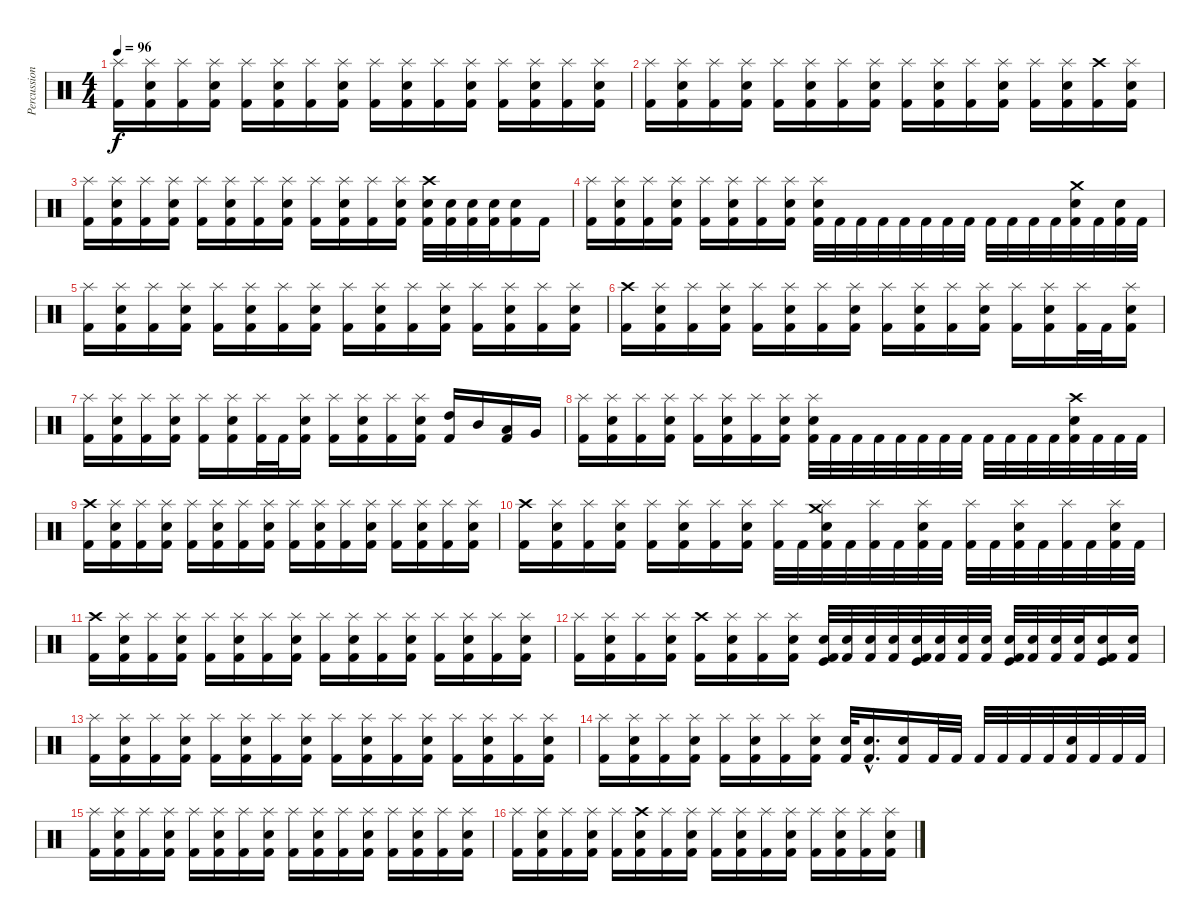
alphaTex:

\track ("Percussion" "Percussion") {instrument percussion}
\staff {score}
\articulation defaults
\ts (4 4)
\tempo 96
\clef neutral
\ks c
("Splash (hit)" "Kick (hit) 2").16{dy f} ("Splash (hit)" "Snare (hit) 2" "Kick (hit) 2").16 ("Splash (hit)" "Kick (hit) 2").16 ("Splash (hit)" "Snare (hit) 2" "Kick (hit) 2").16 ("Splash (hit)" "Kick (hit) 2").16 ("Splash (hit)" "Snare (hit) 2" "Kick (hit) 2").16 ("Splash (hit)" "Kick (hit) 2").16 ("Splash (hit)" "Snare (hit) 2" "Kick (hit) 2").16 ("Splash (hit)" "Kick (hit) 2").16 ("Splash (hit)" "Snare (hit) 2" "Kick (hit) 2").16 ("Splash (hit)" "Kick (hit) 2").16 ("Splash (hit)" "Snare (hit) 2" "Kick (hit) 2").16 ("Splash (hit)" "Kick (hit) 2").16 ("Splash (hit)" "Snare (hit) 2" "Kick (hit) 2").16 ("Splash (hit)" "Kick (hit) 2").16 ("Splash (hit)" "Snare (hit) 2" "Kick (hit) 2").16 |
("Splash (hit)" "Kick (hit) 2").16 ("Splash (hit)" "Snare (hit) 2" "Kick (hit) 2").16 ("Splash (hit)" "Kick (hit) 2").16 ("Splash (hit)" "Snare (hit) 2" "Kick (hit) 2").16 ("Splash (hit)" "Kick (hit) 2").16 ("Splash (hit)" "Snare (hit) 2" "Kick (hit) 2").16 ("Splash (hit)" "Kick (hit) 2").16 ("Splash (hit)" "Snare (hit) 2" "Kick (hit) 2").16 ("Splash (hit)" "Kick (hit) 2").16 ("Splash (hit)" "Snare (hit) 2" "Kick (hit) 2").16 ("Splash (hit)" "Kick (hit) 2").16 ("Splash (hit)" "Snare (hit) 2" "Kick (hit) 2").16 ("Splash (hit)" "Kick (hit) 2").16 ("Splash (hit)" "Snare (hit) 2" "Kick (hit) 2").16 ("Crash high (hit)" "Kick (hit) 2").16 ("Splash (hit)" "Snare (hit) 2" "Kick (hit) 2").16 |
("Splash (hit)" "Kick (hit) 2").16 ("Splash (hit)" "Snare (hit) 2" "Kick (hit) 2").16 ("Splash (hit)" "Kick (hit) 2").16 ("Splash (hit)" "Snare (hit) 2" "Kick (hit) 2").16 ("Splash (hit)" "Kick (hit) 2").16 ("Splash (hit)" "Snare (hit) 2" "Kick (hit) 2").16 ("Splash (hit)" "Kick (hit) 2").16 ("Splash (hit)" "Snare (hit) 2" "Kick (hit) 2").16 ("Splash (hit)" "Kick (hit) 2").16 ("Splash (hit)" "Snare (hit) 2" "Kick (hit) 2").16 ("Splash (hit)" "Kick (hit) 2").16 ("Splash (hit)" "Snare (hit) 2" "Kick (hit) 2").16 ("Crash high (hit)" "Snare (hit) 2" "Kick (hit) 2").32 ("Snare (hit) 2" "Kick (hit) 2").32 ("Snare (hit) 2" "Kick (hit) 2").32 ("Snare (hit) 2" "Kick (hit) 2").32 ("Snare (hit) 2" "Kick (hit) 2").16 "Kick (hit) 2".16 |
("Splash (hit)" "Kick (hit) 2").16 ("Splash (hit)" "Snare (hit) 2" "Kick (hit) 2").16 ("Splash (hit)" "Kick (hit) 2").16 ("Splash (hit)" "Snare (hit) 2" "Kick (hit) 2").16 ("Splash (hit)" "Kick (hit) 2").16 ("Splash (hit)" "Snare (hit) 2" "Kick (hit) 2").16 ("Splash (hit)" "Kick (hit) 2").16 ("Splash (hit)" "Snare (hit) 2" "Kick (hit) 2").16 ("Splash (hit)" "Snare (hit) 2" "Kick (hit) 2").32 "Kick (hit) 2".32 "Kick (hit) 2".32 "Kick (hit) 2".32 "Kick (hit) 2".32 "Kick (hit) 2".32 "Kick (hit) 2".32 "Kick (hit) 2".32 "Kick (hit) 2".32 "Kick (hit) 2".32 "Kick (hit) 2".32 "Kick (hit) 2".32 ("Crash medium (hit)" "Snare (hit) 2" "Kick (hit) 2").32 "Kick (hit) 2".32 ("Snare (hit) 2" "Kick (hit) 2").32 "Kick (hit) 2".32 |
("Splash (hit)" "Kick (hit) 2").16 ("Splash (hit)" "Snare (hit) 2" "Kick (hit) 2").16 ("Splash (hit)" "Kick (hit) 2").16 ("Splash (hit)" "Snare (hit) 2" "Kick (hit) 2").16 ("Splash (hit)" "Kick (hit) 2").16 ("Splash (hit)" "Snare (hit) 2" "Kick (hit) 2").16 ("Splash (hit)" "Kick (hit) 2").16 ("Splash (hit)" "Snare (hit) 2" "Kick (hit) 2").16 ("Splash (hit)" "Kick (hit) 2").16 ("Splash (hit)" "Snare (hit) 2" "Kick (hit) 2").16 ("Splash (hit)" "Kick (hit) 2").16 ("Splash (hit)" "Snare (hit) 2" "Kick (hit) 2").16 ("Splash (hit)" "Kick (hit) 2").16 ("Splash (hit)" "Snare (hit) 2" "Kick (hit) 2").16 ("Splash (hit)" "Kick (hit) 2").16 ("Splash (hit)" "Snare (hit) 2" "Kick (hit) 2").16 |
("Crash high (hit)" "Kick (hit) 2").16 ("Splash (hit)" "Snare (hit) 2" "Kick (hit) 2").16 ("Splash (hit)" "Kick (hit) 2").16 ("Splash (hit)" "Snare (hit) 2" "Kick (hit) 2").16 ("Splash (hit)" "Kick (hit) 2").16 ("Splash (hit)" "Snare (hit) 2" "Kick (hit) 2").16 ("Splash (hit)" "Kick (hit) 2").16 ("Splash (hit)" "Snare (hit) 2" "Kick (hit) 2").16 ("Splash (hit)" "Kick (hit) 2").16 ("Splash (hit)" "Snare (hit) 2" "Kick (hit) 2").16 ("Splash (hit)" "Kick (hit) 2").16 ("Splash (hit)" "Snare (hit) 2" "Kick (hit) 2").16 ("Splash (hit)" "Kick (hit) 2").16 ("Splash (hit)" "Snare (hit) 2" "Kick (hit) 2").16 ("Splash (hit)" "Kick (hit) 2").32 "Kick (hit) 2".32 ("Splash (hit)" "Snare (hit) 2" "Kick (hit) 2").16 |
("Splash (hit)" "Kick (hit) 2").16 ("Splash (hit)" "Snare (hit) 2" "Kick (hit) 2").16 ("Splash (hit)" "Kick (hit) 2").16 ("Splash (hit)" "Snare (hit) 2" "Kick (hit) 2").16 ("Splash (hit)" "Kick (hit) 2").16 ("Splash (hit)" "Snare (hit) 2" "Kick (hit) 2").16 ("Splash (hit)" "Kick (hit) 2").32 "Kick (hit) 2".32 ("Splash (hit)" "Snare (hit) 2" "Kick (hit) 2").16 ("Splash (hit)" "Kick (hit) 2").16 ("Splash (hit)" "Snare (hit) 2" "Kick (hit) 2").16 ("Splash (hit)" "Kick (hit) 2").16 ("Splash (hit)" "Snare (hit) 2" "Kick (hit) 2").16 ("High Tom (hit)" "Kick (hit) 2").16 "Mid Tom (hit)".16 ("Low Tom (hit)" "Kick (hit) 2").16 "Very Low Tom (hit)".16 |
("Splash (hit)" "Kick (hit) 2").16 ("Splash (hit)" "Snare (hit) 2" "Kick (hit) 2").16 ("Splash (hit)" "Kick (hit) 2").16 ("Splash (hit)" "Snare (hit) 2" "Kick (hit) 2").16 ("Splash (hit)" "Kick (hit) 2").16 ("Splash (hit)" "Snare (hit) 2" "Kick (hit) 2").16 ("Splash (hit)" "Kick (hit) 2").16 ("Splash (hit)" "Snare (hit) 2" "Kick (hit) 2").16 ("Splash (hit)" "Snare (hit) 2" "Kick (hit) 2").32 "Kick (hit) 2".32 "Kick (hit) 2".32 "Kick (hit) 2".32 "Kick (hit) 2".32 "Kick (hit) 2".32 "Kick (hit) 2".32 "Kick (hit) 2".32 "Kick (hit) 2".32 "Kick (hit) 2".32 "Kick (hit) 2".32 "Kick (hit) 2".32 ("Crash high (hit)" "Snare (hit) 2" "Kick (hit) 2").32 "Kick (hit) 2".32 "Kick (hit) 2".32 "Kick (hit) 2".32 |
("Crash high (hit)" "Kick (hit) 2").16 ("Splash (hit)" "Snare (hit) 2" "Kick (hit) 2").16 ("Splash (hit)" "Kick (hit) 2").16 ("Splash (hit)" "Snare (hit) 2" "Kick (hit) 2").16 ("Splash (hit)" "Kick (hit) 2").16 ("Splash (hit)" "Snare (hit) 2" "Kick (hit) 2").16 ("Splash (hit)" "Kick (hit) 2").16 ("Splash (hit)" "Snare (hit) 2" "Kick (hit) 2").16 ("Splash (hit)" "Kick (hit) 2").16 ("Splash (hit)" "Snare (hit) 2" "Kick (hit) 2").16 ("Splash (hit)" "Kick (hit) 2").16 ("Splash (hit)" "Snare (hit) 2" "Kick (hit) 2").16 ("Splash (hit)" "Kick (hit) 2").16 ("Splash (hit)" "Snare (hit) 2" "Kick (hit) 2").16 ("Splash (hit)" "Kick (hit) 2").16 ("Splash (hit)" "Snare (hit) 2" "Kick (hit) 2").16 |
("Crash high (hit)" "Kick (hit) 2").16 ("Splash (hit)" "Snare (hit) 2" "Kick (hit) 2").16 ("Splash (hit)" "Kick (hit) 2").16 ("Splash (hit)" "Snare (hit) 2" "Kick (hit) 2").16 ("Splash (hit)" "Kick (hit) 2").16 ("Splash (hit)" "Snare (hit) 2" "Kick (hit) 2").16 ("Splash (hit)" "Kick (hit) 2").16 ("Splash (hit)" "Snare (hit) 2" "Kick (hit) 2").16 ("Splash (hit)" "Kick (hit) 2").32 "Kick (hit) 2".32 ("Crash medium (hit)" "Splash (hit)" "Snare (hit) 2" "Kick (hit) 2").32 "Kick (hit) 2".32 ("Splash (hit)" "Kick (hit) 2").32 "Kick (hit) 2".32 ("Splash (hit)" "Snare (hit) 2" "Kick (hit) 2").32 "Kick (hit) 2".32 ("Splash (hit)" "Kick (hit) 2").32 "Kick (hit) 2".32 ("Splash (hit)" "Snare (hit) 2" "Kick (hit) 2").32 "Kick (hit) 2".32 ("Splash (hit)" "Kick (hit) 2").32 "Kick (hit) 2".32 ("Splash (hit)" "Snare (hit) 2" "Kick (hit) 2").32 "Kick (hit) 2".32 |
("Crash high (hit)" "Kick (hit) 2").16 ("Splash (hit)" "Snare (hit) 2" "Kick (hit) 2").16 ("Splash (hit)" "Kick (hit) 2").16 ("Splash (hit)" "Snare (hit) 2" "Kick (hit) 2").16 ("Splash (hit)" "Kick (hit) 2").16 ("Splash (hit)" "Snare (hit) 2" "Kick (hit) 2").16 ("Splash (hit)" "Kick (hit) 2").16 ("Splash (hit)" "Snare (hit) 2" "Kick (hit) 2").16 ("Splash (hit)" "Kick (hit) 2").16 ("Splash (hit)" "Snare (hit) 2" "Kick (hit) 2").16 ("Splash (hit)" "Kick (hit) 2").16 ("Splash (hit)" "Snare (hit) 2" "Kick (hit) 2").16 ("Splash (hit)" "Kick (hit) 2").16 ("Splash (hit)" "Snare (hit) 2" "Kick (hit) 2").16 ("Splash (hit)" "Kick (hit) 2").16 ("Splash (hit)" "Snare (hit) 2" "Kick (hit) 2").16 |
("Splash (hit)" "Kick (hit) 2").16 ("Splash (hit)" "Snare (hit) 2" "Kick (hit) 2").16 ("Splash (hit)" "Kick (hit) 2").16 ("Splash (hit)" "Snare (hit) 2" "Kick (hit) 2").16 ("Crash high (hit)" "Kick (hit) 2").16 ("Splash (hit)" "Snare (hit) 2" "Kick (hit) 2").16 ("Splash (hit)" "Kick (hit) 2").16 ("Splash (hit)" "Snare (hit) 2" "Kick (hit) 2").16 ("Kick (hit)" "Snare (hit) 2" "Kick (hit) 2").32 ("Snare (hit) 2" "Kick (hit) 2").32 ("Snare (hit) 2" "Kick (hit) 2").32 ("Snare (hit) 2" "Kick (hit) 2").32 ("Kick (hit)" "Snare (hit) 2" "Kick (hit) 2").32 ("Snare (hit) 2" "Kick (hit) 2").32 ("Snare (hit) 2" "Kick (hit) 2").32 ("Snare (hit) 2" "Kick (hit) 2").32 ("Kick (hit)" "Snare (hit) 2" "Kick (hit) 2").32 ("Snare (hit) 2" "Kick (hit) 2").32 ("Snare (hit) 2" "Kick (hit) 2").32 ("Snare (hit) 2" "Kick (hit) 2").32 ("Kick (hit)" "Snare (hit) 2" "Kick (hit) 2").16 ("Snare (hit) 2" "Kick (hit) 2").16 |
("Splash (hit)" "Kick (hit) 2").16 ("Splash (hit)" "Snare (hit) 2" "Kick (hit) 2").16 ("Splash (hit)" "Kick (hit) 2").16 ("Splash (hit)" "Snare (hit) 2" "Kick (hit) 2").16 ("Splash (hit)" "Kick (hit) 2").16 ("Splash (hit)" "Snare (hit) 2" "Kick (hit) 2").16 ("Splash (hit)" "Kick (hit) 2").16 ("Splash (hit)" "Snare (hit) 2" "Kick (hit) 2").16 ("Splash (hit)" "Kick (hit) 2").16 ("Splash (hit)" "Snare (hit) 2" "Kick (hit) 2").16 ("Splash (hit)" "Kick (hit) 2").16 ("Splash (hit)" "Snare (hit) 2" "Kick (hit) 2").16 ("Splash (hit)" "Kick (hit) 2").16 ("Splash (hit)" "Snare (hit) 2" "Kick (hit) 2").16 ("Splash (hit)" "Kick (hit) 2").16 ("Splash (hit)" "Snare (hit) 2" "Kick (hit) 2").16 |
("Splash (hit)" "Kick (hit) 2").16 ("Splash (hit)" "Snare (hit) 2" "Kick (hit) 2").16 ("Splash (hit)" "Kick (hit) 2").16 ("Splash (hit)" "Snare (hit) 2" "Kick (hit) 2").16 ("Splash (hit)" "Kick (hit) 2").16 ("Splash (hit)" "Snare (hit) 2" "Kick (hit) 2").16 ("Splash (hit)" "Kick (hit) 2").16 ("Splash (hit)" "Snare (hit) 2" "Kick (hit) 2").16 ("Snare (hit) 2" "Kick (hit) 2").32 ("Snare (hit) 2"{hac} "Kick (hit) 2"{hac}).16{d} ("Snare (hit) 2" "Kick (hit) 2").16 "Kick (hit) 2".32 "Kick (hit) 2".32 "Kick (hit) 2".32 "Kick (hit) 2".32 "Kick (hit) 2".32 "Kick (hit) 2".32 ("Snare (hit) 2" "Kick (hit) 2").32 "Kick (hit) 2".32 "Kick (hit) 2".32 "Kick (hit) 2".32 |
("Splash (hit)" "Kick (hit) 2").16 ("Splash (hit)" "Snare (hit) 2" "Kick (hit) 2").16 ("Splash (hit)" "Kick (hit) 2").16 ("Splash (hit)" "Snare (hit) 2" "Kick (hit) 2").16 ("Splash (hit)" "Kick (hit) 2").16 ("Splash (hit)" "Snare (hit) 2" "Kick (hit) 2").16 ("Splash (hit)" "Kick (hit) 2").16 ("Splash (hit)" "Snare (hit) 2" "Kick (hit) 2").16 ("Splash (hit)" "Kick (hit) 2").16 ("Splash (hit)" "Snare (hit) 2" "Kick (hit) 2").16 ("Splash (hit)" "Kick (hit) 2").16 ("Splash (hit)" "Snare (hit) 2" "Kick (hit) 2").16 ("Splash (hit)" "Kick (hit) 2").16 ("Splash (hit)" "Snare (hit) 2" "Kick (hit) 2").16 ("Splash (hit)" "Kick (hit) 2").16 ("Splash (hit)" "Snare (hit) 2" "Kick (hit) 2").16 |
("Splash (hit)" "Kick (hit) 2").16 ("Splash (hit)" "Snare (hit) 2" "Kick (hit) 2").16 ("Splash (hit)" "Kick (hit) 2").16 ("Splash (hit)" "Snare (hit) 2" "Kick (hit) 2").16 ("Splash (hit)" "Kick (hit) 2").16 ("Crash high (hit)" "Snare (hit) 2" "Kick (hit) 2").16 ("Splash (hit)" "Kick (hit) 2").16 ("Splash (hit)" "Snare (hit) 2" "Kick (hit) 2").16 ("Splash (hit)" "Kick (hit) 2").16 ("Splash (hit)" "Snare (hit) 2" "Kick (hit) 2").16 ("Splash (hit)" "Kick (hit) 2").16 ("Splash (hit)" "Snare (hit) 2" "Kick (hit) 2").16 ("Splash (hit)" "Kick (hit) 2").16 ("Splash (hit)" "Snare (hit) 2" "Kick (hit) 2").16 ("Splash (hit)" "Kick (hit) 2").16 ("Splash (hit)" "Snare (hit) 2" "Kick (hit) 2").16
